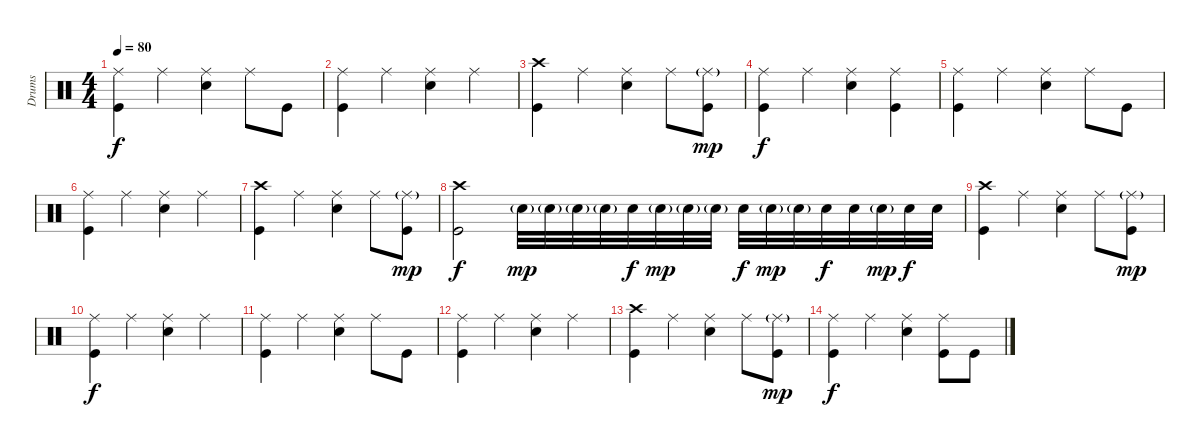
\track ("Drums" "Drums") {instrument percussion}
\staff {score}
\articulation defaults
\ts (4 4)
\tempo 80
\clef neutral
\ks c
("Ride (middle)" "Kick (hit)").4{dy f} "Ride (middle)".4 ("Ride (middle)" "Electric Snare (hit)").4 "Ride (middle)".8 "Kick (hit)".8 |
("Ride (middle)" "Kick (hit)").4 "Ride (middle)".4 ("Ride (middle)" "Electric Snare (hit)").4 "Ride (middle)".4 |
("Crash high (hit)" "Kick (hit)").4 "Ride (middle)".4 ("Ride (middle)" "Electric Snare (hit)").4 "Ride (middle)".8 ("Ride (middle)"{g} "Kick (hit)").8{dy mp} |
("Ride (middle)" "Kick (hit)").4{dy f} "Ride (middle)".4 ("Ride (middle)" "Electric Snare (hit)").4 ("Ride (middle)" "Kick (hit)").4 |
("Ride (middle)" "Kick (hit)").4 "Ride (middle)".4 ("Ride (middle)" "Electric Snare (hit)").4 "Ride (middle)".8 "Kick (hit)".8 |
("Ride (middle)" "Kick (hit)").4 "Ride (middle)".4 ("Ride (middle)" "Electric Snare (hit)").4 "Ride (middle)".4 |
("Crash high (hit)" "Kick (hit)").4 "Ride (middle)".4 ("Ride (middle)" "Electric Snare (hit)").4 "Ride (middle)".8 ("Ride (middle)"{g} "Kick (hit)").8{dy mp} |
("Crash high (hit)" "Kick (hit)").2{dy f} "Electric Snare (hit)"{g}.32{dy mp} "Electric Snare (hit)"{g}.32 "Electric Snare (hit)"{g}.32 "Electric Snare (hit)"{g}.32 "Electric Snare (hit)".32{dy f} "Electric Snare (hit)"{g}.32{dy mp} "Electric Snare (hit)"{g}.32 "Electric Snare (hit)"{g}.32 "Electric Snare (hit)".32{dy f} "Electric Snare (hit)"{g}.32{dy mp} "Electric Snare (hit)"{g}.32 "Electric Snare (hit)".32{dy f} "Electric Snare (hit)".32 "Electric Snare (hit)"{g}.32{dy mp} "Electric Snare (hit)".32{dy f} "Electric Snare (hit)".32 |
("Crash high (hit)" "Kick (hit)").4 "Ride (middle)".4 ("Ride (middle)" "Electric Snare (hit)").4 "Ride (middle)".8 ("Ride (middle)"{g} "Kick (hit)").8{dy mp} |
("Ride (middle)" "Kick (hit)").4{dy f} "Ride (middle)".4 ("Ride (middle)" "Electric Snare (hit)").4 "Ride (middle)".4 |
("Ride (middle)" "Kick (hit)").4 "Ride (middle)".4 ("Ride (middle)" "Electric Snare (hit)").4 "Ride (middle)".8 "Kick (hit)".8 |
("Ride (middle)" "Kick (hit)").4 "Ride (middle)".4 ("Ride (middle)" "Electric Snare (hit)").4 "Ride (middle)".4 |
("Crash high (hit)" "Kick (hit)").4 "Ride (middle)".4 ("Ride (middle)" "Electric Snare (hit)").4 "Ride (middle)".8 ("Ride (middle)"{g} "Kick (hit)").8{dy mp} |
("Ride (middle)" "Kick (hit)").4{dy f} "Ride (middle)".4 ("Ride (middle)" "Electric Snare (hit)").4 ("Ride (middle)" "Kick (hit)").8 "Kick (hit)".8
